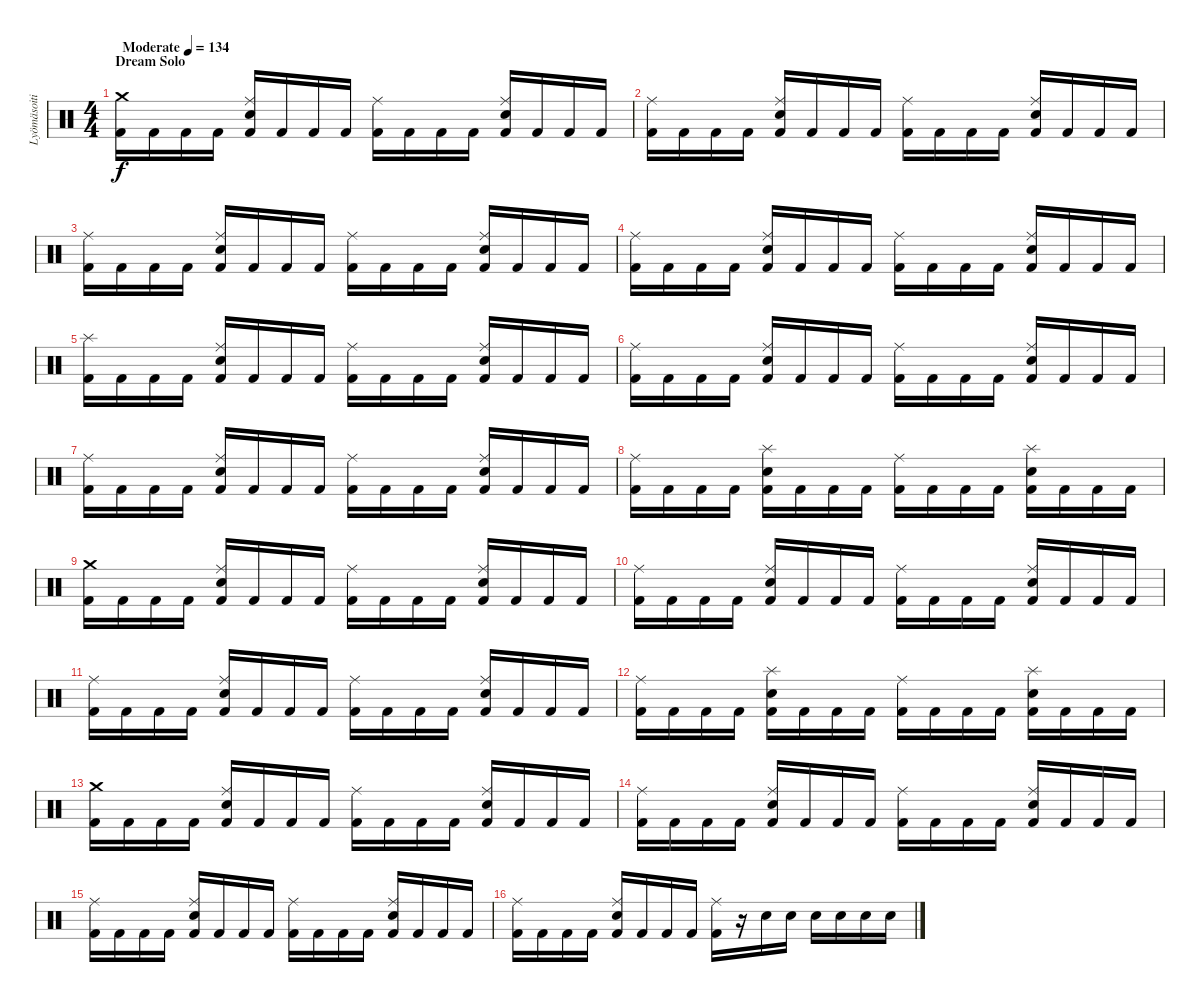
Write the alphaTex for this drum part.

\track ("Lyömäsoitin" "Lyömäsoiti") {instrument percussion}
\staff {score}
\articulation defaults
\ts (4 4)
\section ("" "Dream Solo")
\tempo (134 "Moderate")
\clef neutral
\ks c
("Crash medium (hit)" "Kick (hit) 2").16{dy f} "Kick (hit) 2".16 "Kick (hit) 2".16 "Kick (hit) 2".16 ("Ride (middle)" "Snare (hit) 2" "Kick (hit) 2").16 "Kick (hit) 2".16 "Kick (hit) 2".16 "Kick (hit) 2".16 ("Ride (middle)" "Kick (hit) 2").16 "Kick (hit) 2".16 "Kick (hit) 2".16 "Kick (hit) 2".16 ("Ride (middle)" "Snare (hit) 2" "Kick (hit) 2").16 "Kick (hit) 2".16 "Kick (hit) 2".16 "Kick (hit) 2".16 |
("Ride (middle)" "Kick (hit) 2").16 "Kick (hit) 2".16 "Kick (hit) 2".16 "Kick (hit) 2".16 ("Ride (middle)" "Snare (hit) 2" "Kick (hit) 2").16 "Kick (hit) 2".16 "Kick (hit) 2".16 "Kick (hit) 2".16 ("Ride (middle)" "Kick (hit) 2").16 "Kick (hit) 2".16 "Kick (hit) 2".16 "Kick (hit) 2".16 ("Ride (middle)" "Snare (hit) 2" "Kick (hit) 2").16 "Kick (hit) 2".16 "Kick (hit) 2".16 "Kick (hit) 2".16 |
("Ride (middle)" "Kick (hit) 2").16 "Kick (hit) 2".16 "Kick (hit) 2".16 "Kick (hit) 2".16 ("Ride (middle)" "Snare (hit) 2" "Kick (hit) 2").16 "Kick (hit) 2".16 "Kick (hit) 2".16 "Kick (hit) 2".16 ("Ride (middle)" "Kick (hit) 2").16 "Kick (hit) 2".16 "Kick (hit) 2".16 "Kick (hit) 2".16 ("Ride (middle)" "Snare (hit) 2" "Kick (hit) 2").16 "Kick (hit) 2".16 "Kick (hit) 2".16 "Kick (hit) 2".16 |
("Ride (middle)" "Kick (hit) 2").16 "Kick (hit) 2".16 "Kick (hit) 2".16 "Kick (hit) 2".16 ("Ride (middle)" "Snare (hit) 2" "Kick (hit) 2").16 "Kick (hit) 2".16 "Kick (hit) 2".16 "Kick (hit) 2".16 ("Ride (middle)" "Kick (hit) 2").16 "Kick (hit) 2".16 "Kick (hit) 2".16 "Kick (hit) 2".16 ("Ride (middle)" "Snare (hit) 2" "Kick (hit) 2").16 "Kick (hit) 2".16 "Kick (hit) 2".16 "Kick (hit) 2".16 |
("Splash (hit)" "Kick (hit) 2").16 "Kick (hit) 2".16 "Kick (hit) 2".16 "Kick (hit) 2".16 ("Ride (middle)" "Snare (hit) 2" "Kick (hit) 2").16 "Kick (hit) 2".16 "Kick (hit) 2".16 "Kick (hit) 2".16 ("Ride (middle)" "Kick (hit) 2").16 "Kick (hit) 2".16 "Kick (hit) 2".16 "Kick (hit) 2".16 ("Ride (middle)" "Snare (hit) 2" "Kick (hit) 2").16 "Kick (hit) 2".16 "Kick (hit) 2".16 "Kick (hit) 2".16 |
("Ride (middle)" "Kick (hit) 2").16 "Kick (hit) 2".16 "Kick (hit) 2".16 "Kick (hit) 2".16 ("Ride (middle)" "Snare (hit) 2" "Kick (hit) 2").16 "Kick (hit) 2".16 "Kick (hit) 2".16 "Kick (hit) 2".16 ("Ride (middle)" "Kick (hit) 2").16 "Kick (hit) 2".16 "Kick (hit) 2".16 "Kick (hit) 2".16 ("Ride (middle)" "Snare (hit) 2" "Kick (hit) 2").16 "Kick (hit) 2".16 "Kick (hit) 2".16 "Kick (hit) 2".16 |
("Ride (middle)" "Kick (hit) 2").16 "Kick (hit) 2".16 "Kick (hit) 2".16 "Kick (hit) 2".16 ("Ride (middle)" "Snare (hit) 2" "Kick (hit) 2").16 "Kick (hit) 2".16 "Kick (hit) 2".16 "Kick (hit) 2".16 ("Ride (middle)" "Kick (hit) 2").16 "Kick (hit) 2".16 "Kick (hit) 2".16 "Kick (hit) 2".16 ("Ride (middle)" "Snare (hit) 2" "Kick (hit) 2").16 "Kick (hit) 2".16 "Kick (hit) 2".16 "Kick (hit) 2".16 |
("Ride (middle)" "Kick (hit) 2").16 "Kick (hit) 2".16 "Kick (hit) 2".16 "Kick (hit) 2".16 ("Splash (hit)" "Snare (hit) 2" "Kick (hit) 2").16 "Kick (hit) 2".16 "Kick (hit) 2".16 "Kick (hit) 2".16 ("Ride (middle)" "Kick (hit) 2").16 "Kick (hit) 2".16 "Kick (hit) 2".16 "Kick (hit) 2".16 ("Splash (hit)" "Snare (hit) 2" "Kick (hit) 2").16 "Kick (hit) 2".16 "Kick (hit) 2".16 "Kick (hit) 2".16 |
("Crash medium (hit)" "Kick (hit) 2").16 "Kick (hit) 2".16 "Kick (hit) 2".16 "Kick (hit) 2".16 ("Ride (middle)" "Snare (hit) 2" "Kick (hit) 2").16 "Kick (hit) 2".16 "Kick (hit) 2".16 "Kick (hit) 2".16 ("Ride (middle)" "Kick (hit) 2").16 "Kick (hit) 2".16 "Kick (hit) 2".16 "Kick (hit) 2".16 ("Ride (middle)" "Snare (hit) 2" "Kick (hit) 2").16 "Kick (hit) 2".16 "Kick (hit) 2".16 "Kick (hit) 2".16 |
("Ride (middle)" "Kick (hit) 2").16 "Kick (hit) 2".16 "Kick (hit) 2".16 "Kick (hit) 2".16 ("Ride (middle)" "Snare (hit) 2" "Kick (hit) 2").16 "Kick (hit) 2".16 "Kick (hit) 2".16 "Kick (hit) 2".16 ("Ride (middle)" "Kick (hit) 2").16 "Kick (hit) 2".16 "Kick (hit) 2".16 "Kick (hit) 2".16 ("Ride (middle)" "Snare (hit) 2" "Kick (hit) 2").16 "Kick (hit) 2".16 "Kick (hit) 2".16 "Kick (hit) 2".16 |
("Ride (middle)" "Kick (hit) 2").16 "Kick (hit) 2".16 "Kick (hit) 2".16 "Kick (hit) 2".16 ("Ride (middle)" "Snare (hit) 2" "Kick (hit) 2").16 "Kick (hit) 2".16 "Kick (hit) 2".16 "Kick (hit) 2".16 ("Ride (middle)" "Kick (hit) 2").16 "Kick (hit) 2".16 "Kick (hit) 2".16 "Kick (hit) 2".16 ("Ride (middle)" "Snare (hit) 2" "Kick (hit) 2").16 "Kick (hit) 2".16 "Kick (hit) 2".16 "Kick (hit) 2".16 |
("Ride (middle)" "Kick (hit) 2").16 "Kick (hit) 2".16 "Kick (hit) 2".16 "Kick (hit) 2".16 ("Splash (hit)" "Snare (hit) 2" "Kick (hit) 2").16 "Kick (hit) 2".16 "Kick (hit) 2".16 "Kick (hit) 2".16 ("Ride (middle)" "Kick (hit) 2").16 "Kick (hit) 2".16 "Kick (hit) 2".16 "Kick (hit) 2".16 ("Splash (hit)" "Snare (hit) 2" "Kick (hit) 2").16 "Kick (hit) 2".16 "Kick (hit) 2".16 "Kick (hit) 2".16 |
("Crash medium (hit)" "Kick (hit) 2").16 "Kick (hit) 2".16 "Kick (hit) 2".16 "Kick (hit) 2".16 ("Ride (middle)" "Snare (hit) 2" "Kick (hit) 2").16 "Kick (hit) 2".16 "Kick (hit) 2".16 "Kick (hit) 2".16 ("Ride (middle)" "Kick (hit) 2").16 "Kick (hit) 2".16 "Kick (hit) 2".16 "Kick (hit) 2".16 ("Ride (middle)" "Snare (hit) 2" "Kick (hit) 2").16 "Kick (hit) 2".16 "Kick (hit) 2".16 "Kick (hit) 2".16 |
("Ride (middle)" "Kick (hit) 2").16 "Kick (hit) 2".16 "Kick (hit) 2".16 "Kick (hit) 2".16 ("Ride (middle)" "Snare (hit) 2" "Kick (hit) 2").16 "Kick (hit) 2".16 "Kick (hit) 2".16 "Kick (hit) 2".16 ("Ride (middle)" "Kick (hit) 2").16 "Kick (hit) 2".16 "Kick (hit) 2".16 "Kick (hit) 2".16 ("Ride (middle)" "Snare (hit) 2" "Kick (hit) 2").16 "Kick (hit) 2".16 "Kick (hit) 2".16 "Kick (hit) 2".16 |
("Ride (middle)" "Kick (hit) 2").16 "Kick (hit) 2".16 "Kick (hit) 2".16 "Kick (hit) 2".16 ("Ride (middle)" "Snare (hit) 2" "Kick (hit) 2").16 "Kick (hit) 2".16 "Kick (hit) 2".16 "Kick (hit) 2".16 ("Ride (middle)" "Kick (hit) 2").16 "Kick (hit) 2".16 "Kick (hit) 2".16 "Kick (hit) 2".16 ("Ride (middle)" "Snare (hit) 2" "Kick (hit) 2").16 "Kick (hit) 2".16 "Kick (hit) 2".16 "Kick (hit) 2".16 |
("Ride (middle)" "Kick (hit) 2").16 "Kick (hit) 2".16 "Kick (hit) 2".16 "Kick (hit) 2".16 ("Ride (middle)" "Snare (hit) 2" "Kick (hit) 2").16 "Kick (hit) 2".16 "Kick (hit) 2".16 "Kick (hit) 2".16 ("Ride (middle)" "Kick (hit) 2").16 r.16 "Snare (hit) 2".16 "Snare (hit) 2".16 "Snare (hit) 2".16 "Snare (hit) 2".16 "Snare (hit) 2".16 "Snare (hit) 2".16
